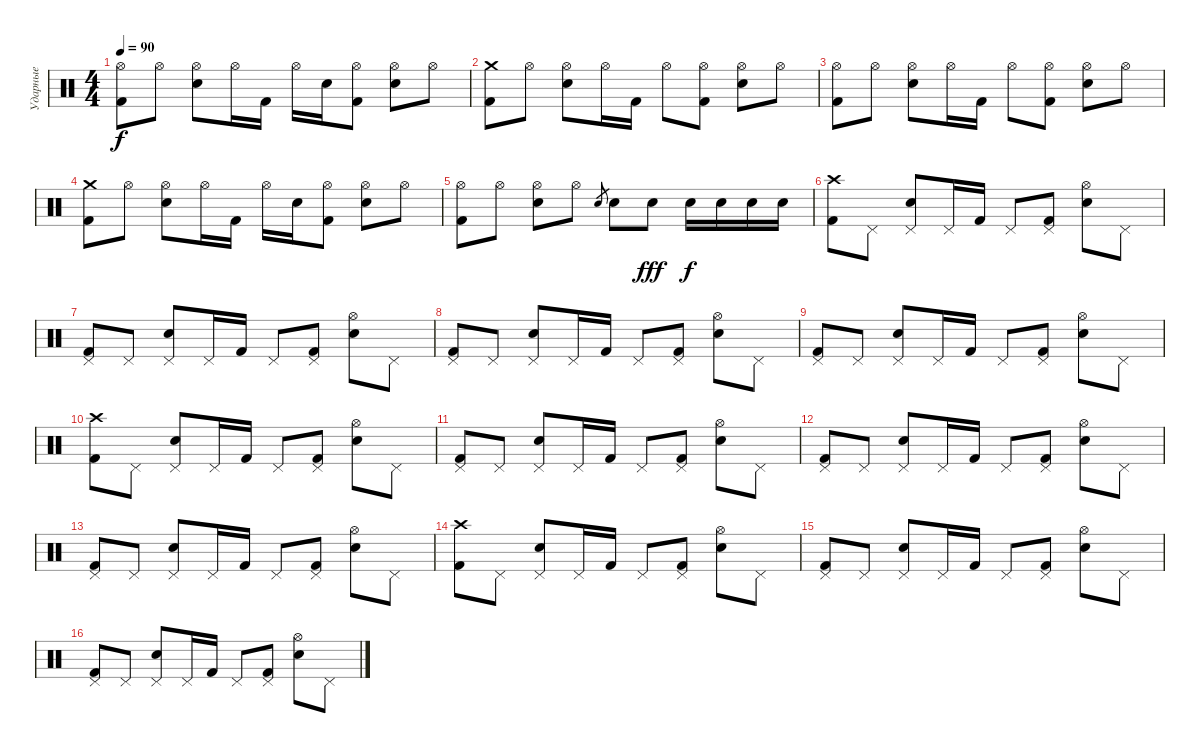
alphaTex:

\track ("Ударные" "Ударные") {instrument percussion}
\staff {score}
\articulation defaults
\ts (4 4)
\tempo 90
\clef neutral
\ks c
("Hi-Hat (open)" "Kick (hit) 2").8{dy f} "Hi-Hat (open)".8 ("Hi-Hat (open)" "Snare (hit) 2").8 "Hi-Hat (open)".16 "Kick (hit) 2".16 "Hi-Hat (open)".16 "Snare (hit) 2".16 ("Hi-Hat (open)" "Kick (hit) 2").8 ("Hi-Hat (open)" "Snare (hit) 2").8 "Hi-Hat (open)".8 |
("Crash medium (hit)" "Kick (hit) 2").8 "Hi-Hat (open)".8 ("Hi-Hat (open)" "Snare (hit) 2").8 "Hi-Hat (open)".16 "Kick (hit) 2".16 "Hi-Hat (open)".8 ("Hi-Hat (open)" "Kick (hit) 2").8 ("Hi-Hat (open)" "Snare (hit) 2").8 "Hi-Hat (open)".8 |
("Hi-Hat (open)" "Kick (hit) 2").8 "Hi-Hat (open)".8 ("Hi-Hat (open)" "Snare (hit) 2").8 "Hi-Hat (open)".16 "Kick (hit) 2".16 "Hi-Hat (open)".8 ("Hi-Hat (open)" "Kick (hit) 2").8 ("Hi-Hat (open)" "Snare (hit) 2").8 "Hi-Hat (open)".8 |
("Crash medium (hit)" "Kick (hit) 2").8 "Hi-Hat (open)".8 ("Hi-Hat (open)" "Snare (hit) 2").8 "Hi-Hat (open)".16 "Kick (hit) 2".16 "Hi-Hat (open)".16 "Snare (hit) 2".16 ("Hi-Hat (open)" "Kick (hit) 2").8 ("Hi-Hat (open)" "Snare (hit) 2").8 "Hi-Hat (open)".8 |
("Hi-Hat (open)" "Kick (hit) 2").8 "Hi-Hat (open)".8 ("Hi-Hat (open)" "Snare (hit) 2").8 "Hi-Hat (open)".8 "Snare (hit) 2".8{gr} "Snare (hit) 2".8 "Snare (hit) 2".8{dy fff} "Snare (hit) 2".16{dy f} "Snare (hit) 2".16 "Snare (hit) 2".16 "Snare (hit) 2".16 |
("Crash high (hit)" "Kick (hit) 2").8 "Pedal Hi-Hat (hit)".8 ("Pedal Hi-Hat (hit)" "Snare (hit) 2").8 "Pedal Hi-Hat (hit)".16 "Kick (hit) 2".16 "Pedal Hi-Hat (hit)".8 ("Pedal Hi-Hat (hit)" "Kick (hit) 2").8 ("Hi-Hat (open)" "Snare (hit) 2").8 "Pedal Hi-Hat (hit)".8 |
("Pedal Hi-Hat (hit)" "Kick (hit) 2").8 "Pedal Hi-Hat (hit)".8 ("Pedal Hi-Hat (hit)" "Snare (hit) 2").8 "Pedal Hi-Hat (hit)".16 "Kick (hit) 2".16 "Pedal Hi-Hat (hit)".8 ("Pedal Hi-Hat (hit)" "Kick (hit) 2").8 ("Hi-Hat (open)" "Snare (hit) 2").8 "Pedal Hi-Hat (hit)".8 |
("Pedal Hi-Hat (hit)" "Kick (hit) 2").8 "Pedal Hi-Hat (hit)".8 ("Pedal Hi-Hat (hit)" "Snare (hit) 2").8 "Pedal Hi-Hat (hit)".16 "Kick (hit) 2".16 "Pedal Hi-Hat (hit)".8 ("Pedal Hi-Hat (hit)" "Kick (hit) 2").8 ("Hi-Hat (open)" "Snare (hit) 2").8 "Pedal Hi-Hat (hit)".8 |
("Pedal Hi-Hat (hit)" "Kick (hit) 2").8 "Pedal Hi-Hat (hit)".8 ("Pedal Hi-Hat (hit)" "Snare (hit) 2").8 "Pedal Hi-Hat (hit)".16 "Kick (hit) 2".16 "Pedal Hi-Hat (hit)".8 ("Pedal Hi-Hat (hit)" "Kick (hit) 2").8 ("Hi-Hat (open)" "Snare (hit) 2").8 "Pedal Hi-Hat (hit)".8 |
("Crash high (hit)" "Kick (hit) 2").8 "Pedal Hi-Hat (hit)".8 ("Pedal Hi-Hat (hit)" "Snare (hit) 2").8 "Pedal Hi-Hat (hit)".16 "Kick (hit) 2".16 "Pedal Hi-Hat (hit)".8 ("Pedal Hi-Hat (hit)" "Kick (hit) 2").8 ("Hi-Hat (open)" "Snare (hit) 2").8 "Pedal Hi-Hat (hit)".8 |
("Pedal Hi-Hat (hit)" "Kick (hit) 2").8 "Pedal Hi-Hat (hit)".8 ("Pedal Hi-Hat (hit)" "Snare (hit) 2").8 "Pedal Hi-Hat (hit)".16 "Kick (hit) 2".16 "Pedal Hi-Hat (hit)".8 ("Pedal Hi-Hat (hit)" "Kick (hit) 2").8 ("Hi-Hat (open)" "Snare (hit) 2").8 "Pedal Hi-Hat (hit)".8 |
("Pedal Hi-Hat (hit)" "Kick (hit) 2").8 "Pedal Hi-Hat (hit)".8 ("Pedal Hi-Hat (hit)" "Snare (hit) 2").8 "Pedal Hi-Hat (hit)".16 "Kick (hit) 2".16 "Pedal Hi-Hat (hit)".8 ("Pedal Hi-Hat (hit)" "Kick (hit) 2").8 ("Hi-Hat (open)" "Snare (hit) 2").8 "Pedal Hi-Hat (hit)".8 |
("Pedal Hi-Hat (hit)" "Kick (hit) 2").8 "Pedal Hi-Hat (hit)".8 ("Pedal Hi-Hat (hit)" "Snare (hit) 2").8 "Pedal Hi-Hat (hit)".16 "Kick (hit) 2".16 "Pedal Hi-Hat (hit)".8 ("Pedal Hi-Hat (hit)" "Kick (hit) 2").8 ("Hi-Hat (open)" "Snare (hit) 2").8 "Pedal Hi-Hat (hit)".8 |
("Crash high (hit)" "Kick (hit) 2").8 "Pedal Hi-Hat (hit)".8 ("Pedal Hi-Hat (hit)" "Snare (hit) 2").8 "Pedal Hi-Hat (hit)".16 "Kick (hit) 2".16 "Pedal Hi-Hat (hit)".8 ("Pedal Hi-Hat (hit)" "Kick (hit) 2").8 ("Hi-Hat (open)" "Snare (hit) 2").8 "Pedal Hi-Hat (hit)".8 |
("Pedal Hi-Hat (hit)" "Kick (hit) 2").8 "Pedal Hi-Hat (hit)".8 ("Pedal Hi-Hat (hit)" "Snare (hit) 2").8 "Pedal Hi-Hat (hit)".16 "Kick (hit) 2".16 "Pedal Hi-Hat (hit)".8 ("Pedal Hi-Hat (hit)" "Kick (hit) 2").8 ("Hi-Hat (open)" "Snare (hit) 2").8 "Pedal Hi-Hat (hit)".8 |
("Pedal Hi-Hat (hit)" "Kick (hit) 2").8 "Pedal Hi-Hat (hit)".8 ("Pedal Hi-Hat (hit)" "Snare (hit) 2").8 "Pedal Hi-Hat (hit)".16 "Kick (hit) 2".16 "Pedal Hi-Hat (hit)".8 ("Pedal Hi-Hat (hit)" "Kick (hit) 2").8 ("Hi-Hat (open)" "Snare (hit) 2").8 "Pedal Hi-Hat (hit)".8
